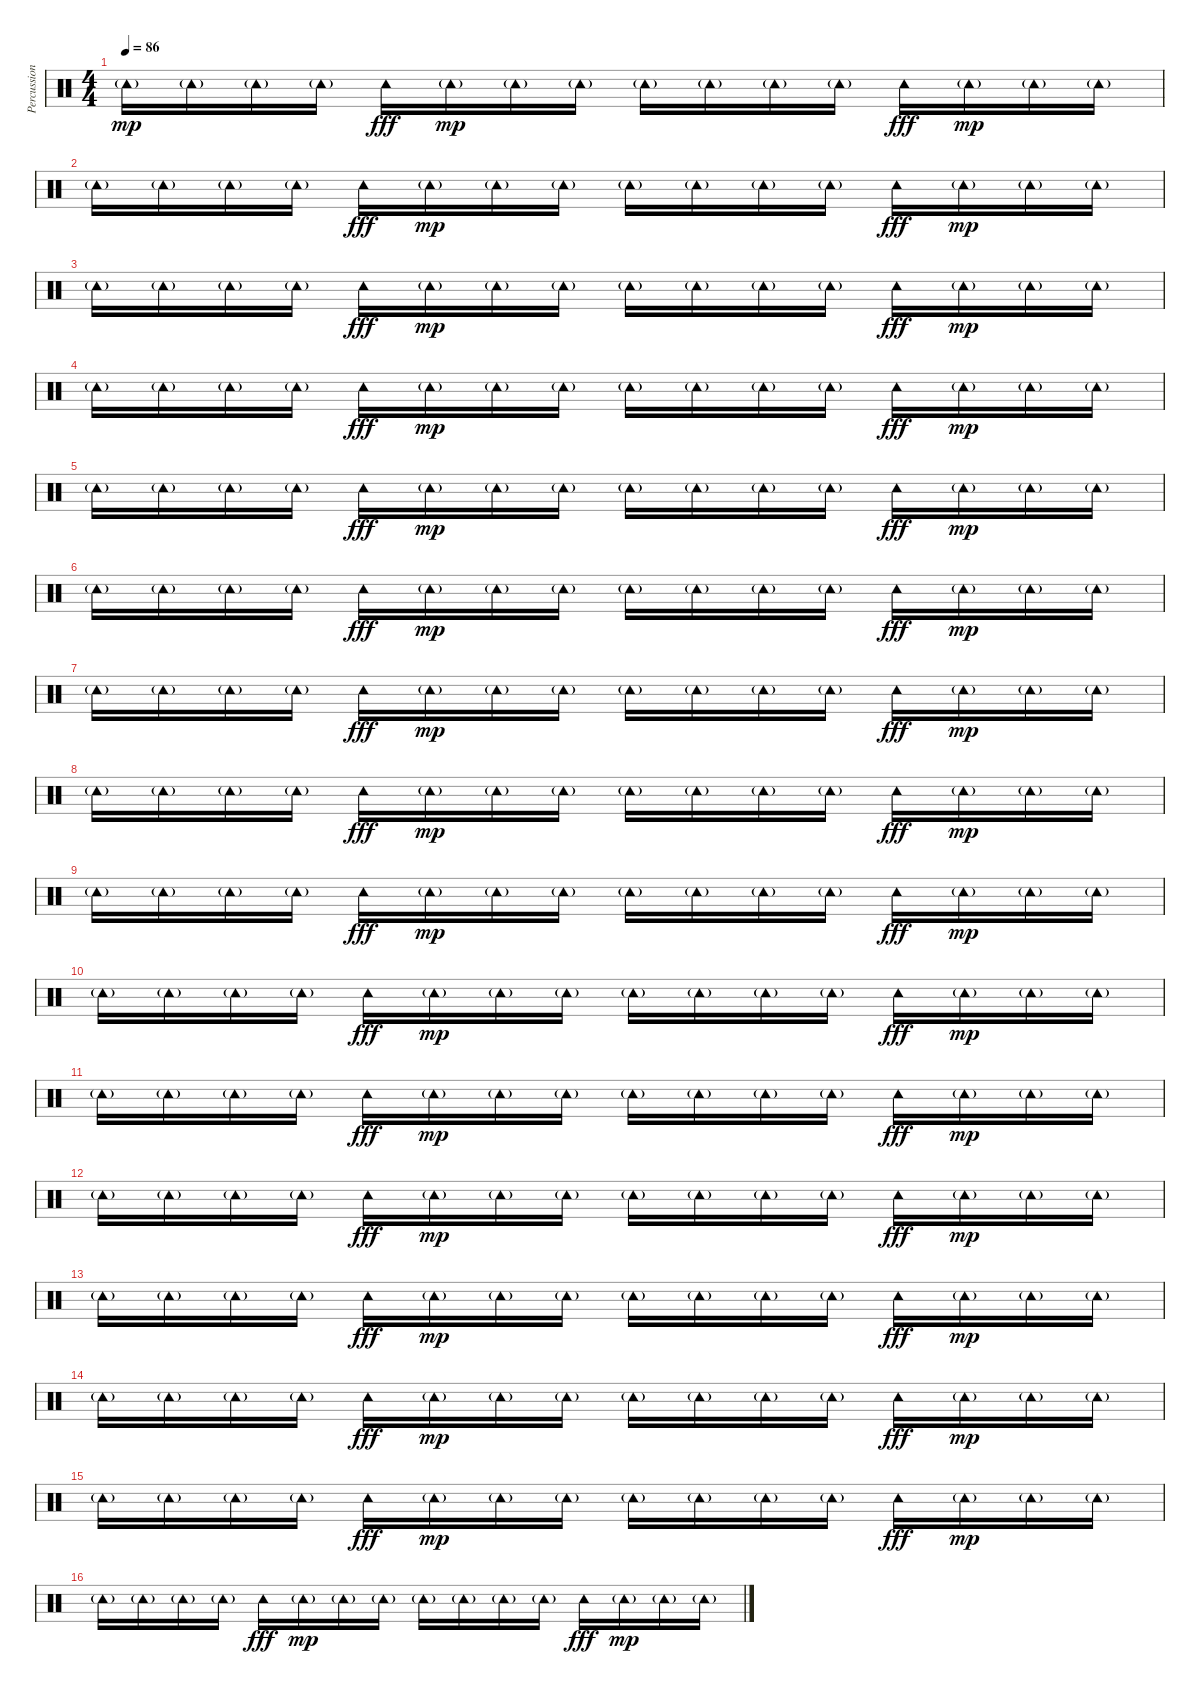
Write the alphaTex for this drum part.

\track ("Percussion" "Percussion") {instrument percussion}
\staff {score}
\articulation defaults
\ts (4 4)
\tempo 86
\clef neutral
\ks c "Tambourine (hit)"{g}.16{dy mp} "Tambourine (hit)"{g}.16 "Tambourine (hit)"{g}.16 "Tambourine (hit)"{g}.16 "Tambourine (hit)".16{dy fff} "Tambourine (hit)"{g}.16{dy mp} "Tambourine (hit)"{g}.16 "Tambourine (hit)"{g}.16 "Tambourine (hit)"{g}.16 "Tambourine (hit)"{g}.16 "Tambourine (hit)"{g}.16 "Tambourine (hit)"{g}.16 "Tambourine (hit)".16{dy fff} "Tambourine (hit)"{g}.16{dy mp} "Tambourine (hit)"{g}.16 "Tambourine (hit)"{g}.16
|
"Tambourine (hit)"{g}.16 "Tambourine (hit)"{g}.16 "Tambourine (hit)"{g}.16 "Tambourine (hit)"{g}.16 "Tambourine (hit)".16{dy fff} "Tambourine (hit)"{g}.16{dy mp} "Tambourine (hit)"{g}.16 "Tambourine (hit)"{g}.16 "Tambourine (hit)"{g}.16 "Tambourine (hit)"{g}.16 "Tambourine (hit)"{g}.16 "Tambourine (hit)"{g}.16 "Tambourine (hit)".16{dy fff} "Tambourine (hit)"{g}.16{dy mp} "Tambourine (hit)"{g}.16 "Tambourine (hit)"{g}.16 |
"Tambourine (hit)"{g}.16 "Tambourine (hit)"{g}.16 "Tambourine (hit)"{g}.16 "Tambourine (hit)"{g}.16 "Tambourine (hit)".16{dy fff} "Tambourine (hit)"{g}.16{dy mp} "Tambourine (hit)"{g}.16 "Tambourine (hit)"{g}.16 "Tambourine (hit)"{g}.16 "Tambourine (hit)"{g}.16 "Tambourine (hit)"{g}.16 "Tambourine (hit)"{g}.16 "Tambourine (hit)".16{dy fff} "Tambourine (hit)"{g}.16{dy mp} "Tambourine (hit)"{g}.16 "Tambourine (hit)"{g}.16 |
"Tambourine (hit)"{g}.16 "Tambourine (hit)"{g}.16 "Tambourine (hit)"{g}.16 "Tambourine (hit)"{g}.16 "Tambourine (hit)".16{dy fff} "Tambourine (hit)"{g}.16{dy mp} "Tambourine (hit)"{g}.16 "Tambourine (hit)"{g}.16 "Tambourine (hit)"{g}.16 "Tambourine (hit)"{g}.16 "Tambourine (hit)"{g}.16 "Tambourine (hit)"{g}.16 "Tambourine (hit)".16{dy fff} "Tambourine (hit)"{g}.16{dy mp} "Tambourine (hit)"{g}.16 "Tambourine (hit)"{g}.16 |
"Tambourine (hit)"{g}.16 "Tambourine (hit)"{g}.16 "Tambourine (hit)"{g}.16 "Tambourine (hit)"{g}.16 "Tambourine (hit)".16{dy fff} "Tambourine (hit)"{g}.16{dy mp} "Tambourine (hit)"{g}.16 "Tambourine (hit)"{g}.16 "Tambourine (hit)"{g}.16 "Tambourine (hit)"{g}.16 "Tambourine (hit)"{g}.16 "Tambourine (hit)"{g}.16 "Tambourine (hit)".16{dy fff} "Tambourine (hit)"{g}.16{dy mp} "Tambourine (hit)"{g}.16 "Tambourine (hit)"{g}.16 |
"Tambourine (hit)"{g}.16 "Tambourine (hit)"{g}.16 "Tambourine (hit)"{g}.16 "Tambourine (hit)"{g}.16 "Tambourine (hit)".16{dy fff} "Tambourine (hit)"{g}.16{dy mp} "Tambourine (hit)"{g}.16 "Tambourine (hit)"{g}.16 "Tambourine (hit)"{g}.16 "Tambourine (hit)"{g}.16 "Tambourine (hit)"{g}.16 "Tambourine (hit)"{g}.16 "Tambourine (hit)".16{dy fff} "Tambourine (hit)"{g}.16{dy mp} "Tambourine (hit)"{g}.16 "Tambourine (hit)"{g}.16 |
"Tambourine (hit)"{g}.16 "Tambourine (hit)"{g}.16 "Tambourine (hit)"{g}.16 "Tambourine (hit)"{g}.16 "Tambourine (hit)".16{dy fff} "Tambourine (hit)"{g}.16{dy mp} "Tambourine (hit)"{g}.16 "Tambourine (hit)"{g}.16 "Tambourine (hit)"{g}.16 "Tambourine (hit)"{g}.16 "Tambourine (hit)"{g}.16 "Tambourine (hit)"{g}.16 "Tambourine (hit)".16{dy fff} "Tambourine (hit)"{g}.16{dy mp} "Tambourine (hit)"{g}.16 "Tambourine (hit)"{g}.16 |
"Tambourine (hit)"{g}.16 "Tambourine (hit)"{g}.16 "Tambourine (hit)"{g}.16 "Tambourine (hit)"{g}.16 "Tambourine (hit)".16{dy fff} "Tambourine (hit)"{g}.16{dy mp} "Tambourine (hit)"{g}.16 "Tambourine (hit)"{g}.16 "Tambourine (hit)"{g}.16 "Tambourine (hit)"{g}.16 "Tambourine (hit)"{g}.16 "Tambourine (hit)"{g}.16 "Tambourine (hit)".16{dy fff} "Tambourine (hit)"{g}.16{dy mp} "Tambourine (hit)"{g}.16 "Tambourine (hit)"{g}.16 |
"Tambourine (hit)"{g}.16 "Tambourine (hit)"{g}.16 "Tambourine (hit)"{g}.16 "Tambourine (hit)"{g}.16 "Tambourine (hit)".16{dy fff} "Tambourine (hit)"{g}.16{dy mp} "Tambourine (hit)"{g}.16 "Tambourine (hit)"{g}.16 "Tambourine (hit)"{g}.16 "Tambourine (hit)"{g}.16 "Tambourine (hit)"{g}.16 "Tambourine (hit)"{g}.16 "Tambourine (hit)".16{dy fff} "Tambourine (hit)"{g}.16{dy mp} "Tambourine (hit)"{g}.16 "Tambourine (hit)"{g}.16 |
"Tambourine (hit)"{g}.16 "Tambourine (hit)"{g}.16 "Tambourine (hit)"{g}.16 "Tambourine (hit)"{g}.16 "Tambourine (hit)".16{dy fff} "Tambourine (hit)"{g}.16{dy mp} "Tambourine (hit)"{g}.16 "Tambourine (hit)"{g}.16 "Tambourine (hit)"{g}.16 "Tambourine (hit)"{g}.16 "Tambourine (hit)"{g}.16 "Tambourine (hit)"{g}.16 "Tambourine (hit)".16{dy fff} "Tambourine (hit)"{g}.16{dy mp} "Tambourine (hit)"{g}.16 "Tambourine (hit)"{g}.16 |
"Tambourine (hit)"{g}.16 "Tambourine (hit)"{g}.16 "Tambourine (hit)"{g}.16 "Tambourine (hit)"{g}.16 "Tambourine (hit)".16{dy fff} "Tambourine (hit)"{g}.16{dy mp} "Tambourine (hit)"{g}.16 "Tambourine (hit)"{g}.16 "Tambourine (hit)"{g}.16 "Tambourine (hit)"{g}.16 "Tambourine (hit)"{g}.16 "Tambourine (hit)"{g}.16 "Tambourine (hit)".16{dy fff} "Tambourine (hit)"{g}.16{dy mp} "Tambourine (hit)"{g}.16 "Tambourine (hit)"{g}.16 |
"Tambourine (hit)"{g}.16 "Tambourine (hit)"{g}.16 "Tambourine (hit)"{g}.16 "Tambourine (hit)"{g}.16 "Tambourine (hit)".16{dy fff} "Tambourine (hit)"{g}.16{dy mp} "Tambourine (hit)"{g}.16 "Tambourine (hit)"{g}.16 "Tambourine (hit)"{g}.16 "Tambourine (hit)"{g}.16 "Tambourine (hit)"{g}.16 "Tambourine (hit)"{g}.16 "Tambourine (hit)".16{dy fff} "Tambourine (hit)"{g}.16{dy mp} "Tambourine (hit)"{g}.16 "Tambourine (hit)"{g}.16 |
"Tambourine (hit)"{g}.16 "Tambourine (hit)"{g}.16 "Tambourine (hit)"{g}.16 "Tambourine (hit)"{g}.16 "Tambourine (hit)".16{dy fff} "Tambourine (hit)"{g}.16{dy mp} "Tambourine (hit)"{g}.16 "Tambourine (hit)"{g}.16 "Tambourine (hit)"{g}.16 "Tambourine (hit)"{g}.16 "Tambourine (hit)"{g}.16 "Tambourine (hit)"{g}.16 "Tambourine (hit)".16{dy fff} "Tambourine (hit)"{g}.16{dy mp} "Tambourine (hit)"{g}.16 "Tambourine (hit)"{g}.16 |
"Tambourine (hit)"{g}.16 "Tambourine (hit)"{g}.16 "Tambourine (hit)"{g}.16 "Tambourine (hit)"{g}.16 "Tambourine (hit)".16{dy fff} "Tambourine (hit)"{g}.16{dy mp} "Tambourine (hit)"{g}.16 "Tambourine (hit)"{g}.16 "Tambourine (hit)"{g}.16 "Tambourine (hit)"{g}.16 "Tambourine (hit)"{g}.16 "Tambourine (hit)"{g}.16 "Tambourine (hit)".16{dy fff} "Tambourine (hit)"{g}.16{dy mp} "Tambourine (hit)"{g}.16 "Tambourine (hit)"{g}.16 |
"Tambourine (hit)"{g}.16 "Tambourine (hit)"{g}.16 "Tambourine (hit)"{g}.16 "Tambourine (hit)"{g}.16 "Tambourine (hit)".16{dy fff} "Tambourine (hit)"{g}.16{dy mp} "Tambourine (hit)"{g}.16 "Tambourine (hit)"{g}.16 "Tambourine (hit)"{g}.16 "Tambourine (hit)"{g}.16 "Tambourine (hit)"{g}.16 "Tambourine (hit)"{g}.16 "Tambourine (hit)".16{dy fff} "Tambourine (hit)"{g}.16{dy mp} "Tambourine (hit)"{g}.16 "Tambourine (hit)"{g}.16 |
"Tambourine (hit)"{g}.16 "Tambourine (hit)"{g}.16 "Tambourine (hit)"{g}.16 "Tambourine (hit)"{g}.16 "Tambourine (hit)".16{dy fff} "Tambourine (hit)"{g}.16{dy mp} "Tambourine (hit)"{g}.16 "Tambourine (hit)"{g}.16 "Tambourine (hit)"{g}.16 "Tambourine (hit)"{g}.16 "Tambourine (hit)"{g}.16 "Tambourine (hit)"{g}.16 "Tambourine (hit)".16{dy fff} "Tambourine (hit)"{g}.16{dy mp} "Tambourine (hit)"{g}.16 "Tambourine (hit)"{g}.16
